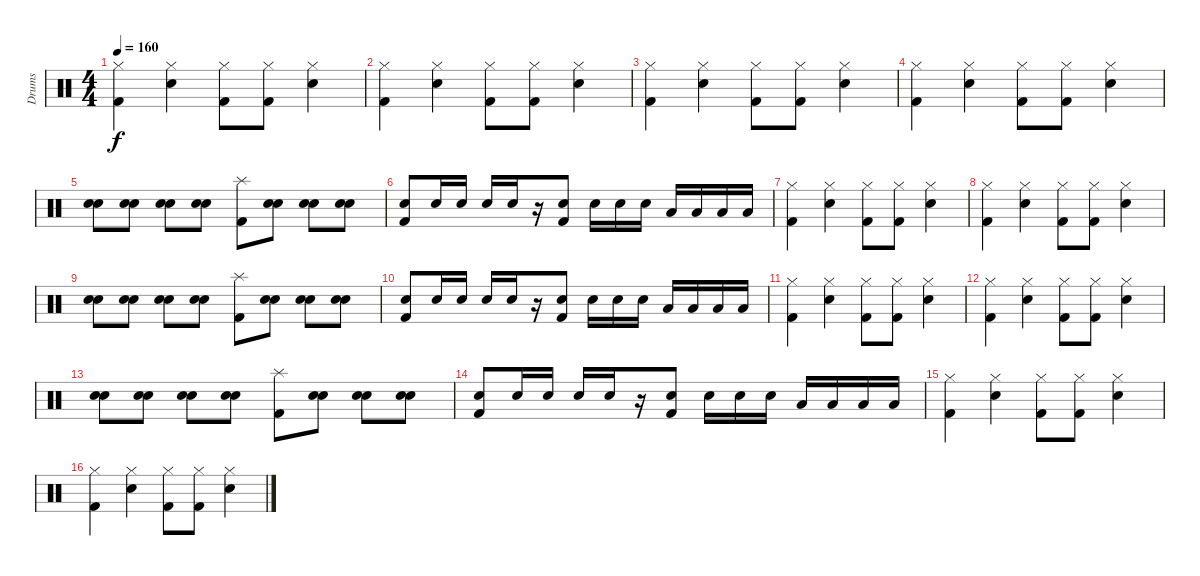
\track ("Drums" "Drums") {instrument percussion}
\staff {score}
\articulation defaults
\ts (4 4)
\tempo 160
\clef neutral
\ks c
("Hi-Hat (closed)" "Kick (hit) 2").4{dy f} ("Hi-Hat (closed)" "Snare (hit) 2").4 ("Hi-Hat (closed)" "Kick (hit) 2").8 ("Hi-Hat (closed)" "Kick (hit) 2").8 ("Hi-Hat (closed)" "Snare (hit) 2").4 |
("Hi-Hat (closed)" "Kick (hit) 2").4 ("Hi-Hat (closed)" "Snare (hit) 2").4 ("Hi-Hat (closed)" "Kick (hit) 2").8 ("Hi-Hat (closed)" "Kick (hit) 2").8 ("Hi-Hat (closed)" "Snare (hit) 2").4 |
("Hi-Hat (closed)" "Kick (hit) 2").4 ("Hi-Hat (closed)" "Snare (hit) 2").4 ("Hi-Hat (closed)" "Kick (hit) 2").8 ("Hi-Hat (closed)" "Kick (hit) 2").8 ("Hi-Hat (closed)" "Snare (hit) 2").4 |
("Hi-Hat (closed)" "Kick (hit) 2").4 ("Hi-Hat (closed)" "Snare (hit) 2").4 ("Hi-Hat (closed)" "Kick (hit) 2").8 ("Hi-Hat (closed)" "Kick (hit) 2").8 ("Hi-Hat (closed)" "Snare (hit) 2").4 |
("Electric Snare (hit)" "Electric Snare (hit)").8 ("Electric Snare (hit)" "Electric Snare (hit)").8 ("Electric Snare (hit)" "Electric Snare (hit)").8 ("Electric Snare (hit)" "Electric Snare (hit)").8 ("Splash (hit)" "Kick (hit) 2").8 ("Electric Snare (hit)" "Electric Snare (hit)").8 ("Electric Snare (hit)" "Electric Snare (hit)").8 ("Electric Snare (hit)" "Electric Snare (hit)").8 |
("Electric Snare (hit)" "Kick (hit) 2").8 "Electric Snare (hit)".16 "Electric Snare (hit)".16 "Electric Snare (hit)".16 "Electric Snare (hit)".16 r.16 ("Electric Snare (hit)" "Kick (hit) 2").8 "Electric Snare (hit)".16 "Electric Snare (hit)".16 "Electric Snare (hit)".16 "Low Tom (hit)".16 "Low Tom (hit)".16 "Low Tom (hit)".16 "Low Tom (hit)".16 |
("Hi-Hat (closed)" "Kick (hit) 2").4 ("Hi-Hat (closed)" "Snare (hit) 2").4 ("Hi-Hat (closed)" "Kick (hit) 2").8 ("Hi-Hat (closed)" "Kick (hit) 2").8 ("Hi-Hat (closed)" "Snare (hit) 2").4 |
("Hi-Hat (closed)" "Kick (hit) 2").4 ("Hi-Hat (closed)" "Snare (hit) 2").4 ("Hi-Hat (closed)" "Kick (hit) 2").8 ("Hi-Hat (closed)" "Kick (hit) 2").8 ("Hi-Hat (closed)" "Snare (hit) 2").4 |
("Electric Snare (hit)" "Electric Snare (hit)").8 ("Electric Snare (hit)" "Electric Snare (hit)").8 ("Electric Snare (hit)" "Electric Snare (hit)").8 ("Electric Snare (hit)" "Electric Snare (hit)").8 ("Splash (hit)" "Kick (hit) 2").8 ("Electric Snare (hit)" "Electric Snare (hit)").8 ("Electric Snare (hit)" "Electric Snare (hit)").8 ("Electric Snare (hit)" "Electric Snare (hit)").8 |
("Electric Snare (hit)" "Kick (hit) 2").8 "Electric Snare (hit)".16 "Electric Snare (hit)".16 "Electric Snare (hit)".16 "Electric Snare (hit)".16 r.16 ("Electric Snare (hit)" "Kick (hit) 2").8 "Electric Snare (hit)".16 "Electric Snare (hit)".16 "Electric Snare (hit)".16 "Low Tom (hit)".16 "Low Tom (hit)".16 "Low Tom (hit)".16 "Low Tom (hit)".16 |
("Hi-Hat (closed)" "Kick (hit) 2").4 ("Hi-Hat (closed)" "Snare (hit) 2").4 ("Hi-Hat (closed)" "Kick (hit) 2").8 ("Hi-Hat (closed)" "Kick (hit) 2").8 ("Hi-Hat (closed)" "Snare (hit) 2").4 |
("Hi-Hat (closed)" "Kick (hit) 2").4 ("Hi-Hat (closed)" "Snare (hit) 2").4 ("Hi-Hat (closed)" "Kick (hit) 2").8 ("Hi-Hat (closed)" "Kick (hit) 2").8 ("Hi-Hat (closed)" "Snare (hit) 2").4 |
("Electric Snare (hit)" "Electric Snare (hit)").8 ("Electric Snare (hit)" "Electric Snare (hit)").8 ("Electric Snare (hit)" "Electric Snare (hit)").8 ("Electric Snare (hit)" "Electric Snare (hit)").8 ("Splash (hit)" "Kick (hit) 2").8 ("Electric Snare (hit)" "Electric Snare (hit)").8 ("Electric Snare (hit)" "Electric Snare (hit)").8 ("Electric Snare (hit)" "Electric Snare (hit)").8 |
("Electric Snare (hit)" "Kick (hit) 2").8 "Electric Snare (hit)".16 "Electric Snare (hit)".16 "Electric Snare (hit)".16 "Electric Snare (hit)".16 r.16 ("Electric Snare (hit)" "Kick (hit) 2").8 "Electric Snare (hit)".16 "Electric Snare (hit)".16 "Electric Snare (hit)".16 "Low Tom (hit)".16 "Low Tom (hit)".16 "Low Tom (hit)".16 "Low Tom (hit)".16 |
("Hi-Hat (closed)" "Kick (hit) 2").4 ("Hi-Hat (closed)" "Snare (hit) 2").4 ("Hi-Hat (closed)" "Kick (hit) 2").8 ("Hi-Hat (closed)" "Kick (hit) 2").8 ("Hi-Hat (closed)" "Snare (hit) 2").4 |
("Hi-Hat (closed)" "Kick (hit) 2").4 ("Hi-Hat (closed)" "Snare (hit) 2").4 ("Hi-Hat (closed)" "Kick (hit) 2").8 ("Hi-Hat (closed)" "Kick (hit) 2").8 ("Hi-Hat (closed)" "Snare (hit) 2").4
